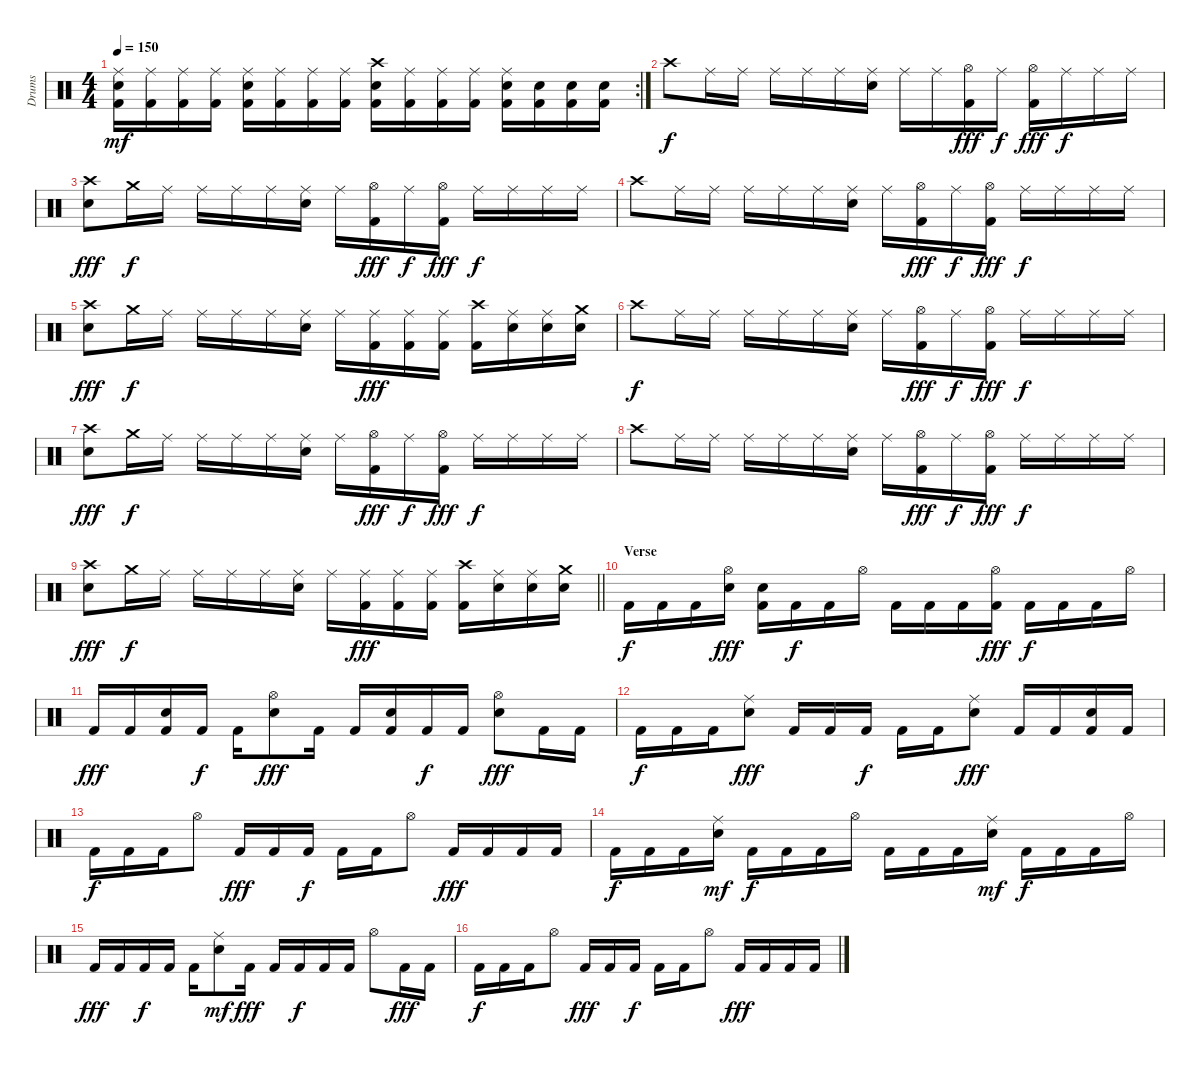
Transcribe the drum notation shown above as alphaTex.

\track ("Drums" "Drums") {instrument percussion}
\staff {score}
\articulation defaults
\rc 2
\ts (4 4)
\tempo 150
\clef neutral
\ks c
("Ride (middle)" "Electric Snare (hit)" "Kick (hit) 2").16{dy mf} ("Ride (middle)" "Kick (hit) 2").16 ("Ride (middle)" "Kick (hit) 2").16 ("Ride (middle)" "Kick (hit) 2").16 ("Ride (middle)" "Electric Snare (hit)" "Kick (hit) 2").16 ("Ride (middle)" "Kick (hit) 2").16 ("Ride (middle)" "Kick (hit) 2").16 ("Ride (middle)" "Kick (hit) 2").16 ("Crash high (hit)" "Electric Snare (hit)" "Kick (hit) 2").16 ("Ride (middle)" "Kick (hit) 2").16 ("Ride (middle)" "Kick (hit) 2").16 ("Ride (middle)" "Kick (hit) 2").16 ("Ride (middle)" "Electric Snare (hit)" "Kick (hit) 2").16 ("Electric Snare (hit)" "Kick (hit) 2").16 ("Electric Snare (hit)" "Kick (hit) 2").16 ("Electric Snare (hit)" "Kick (hit) 2").16 |
"Crash high (hit)".8{dy f} "Ride (middle)".16 "Ride (middle)".16 "Ride (middle)".16 "Ride (middle)".16 "Ride (middle)".16 ("Ride (middle)" "Snare (hit) 2").16 "Ride (middle)".16 "Ride (middle)".16 ("Hi-Hat (open)" "Kick (hit) 2").16{dy fff} "Ride (middle)".16{dy f} ("Hi-Hat (open)" "Kick (hit) 2").16{dy fff} "Ride (middle)".16{dy f} "Ride (middle)".16 "Ride (middle)".16 |
("Crash high (hit)" "Snare (hit) 2").8{dy fff} "Crash medium (hit)".16{dy f} "Ride (middle)".16 "Ride (middle)".16 "Ride (middle)".16 "Ride (middle)".16 ("Ride (middle)" "Snare (hit) 2").16 "Ride (middle)".16 ("Hi-Hat (open)" "Kick (hit) 2").16{dy fff} "Ride (middle)".16{dy f} ("Hi-Hat (open)" "Kick (hit) 2").16{dy fff} "Ride (middle)".16{dy f} "Ride (middle)".16 "Ride (middle)".16 "Ride (middle)".16 |
"Crash high (hit)".8 "Ride (middle)".16 "Ride (middle)".16 "Ride (middle)".16 "Ride (middle)".16 "Ride (middle)".16 ("Ride (middle)" "Snare (hit) 2").16 "Ride (middle)".16 ("Hi-Hat (open)" "Kick (hit) 2").16{dy fff} "Ride (middle)".16{dy f} ("Hi-Hat (open)" "Kick (hit) 2").16{dy fff} "Ride (middle)".16{dy f} "Ride (middle)".16 "Ride (middle)".16 "Ride (middle)".16 |
("Crash high (hit)" "Snare (hit) 2").8{dy fff} "Crash medium (hit)".16{dy f} "Ride (middle)".16 "Ride (middle)".16 "Ride (middle)".16 "Ride (middle)".16 ("Ride (middle)" "Snare (hit) 2").16 "Ride (middle)".16 ("Ride (middle)" "Kick (hit) 2").16{dy fff} ("Ride (middle)" "Kick (hit) 2").16 ("Ride (middle)" "Kick (hit) 2").16 ("Crash high (hit)" "Kick (hit) 2").16 ("Ride (middle)" "Electric Snare (hit)").16 ("Ride (middle)" "Electric Snare (hit)").16 ("Crash medium (hit)" "Snare (hit) 2").16 |
"Crash high (hit)".8{dy f} "Ride (middle)".16 "Ride (middle)".16 "Ride (middle)".16 "Ride (middle)".16 "Ride (middle)".16 ("Ride (middle)" "Snare (hit) 2").16 "Ride (middle)".16 ("Hi-Hat (open)" "Kick (hit) 2").16{dy fff} "Ride (middle)".16{dy f} ("Hi-Hat (open)" "Kick (hit) 2").16{dy fff} "Ride (middle)".16{dy f} "Ride (middle)".16 "Ride (middle)".16 "Ride (middle)".16 |
("Crash high (hit)" "Snare (hit) 2").8{dy fff} "Crash medium (hit)".16{dy f} "Ride (middle)".16 "Ride (middle)".16 "Ride (middle)".16 "Ride (middle)".16 ("Ride (middle)" "Snare (hit) 2").16 "Ride (middle)".16 ("Hi-Hat (open)" "Kick (hit) 2").16{dy fff} "Ride (middle)".16{dy f} ("Hi-Hat (open)" "Kick (hit) 2").16{dy fff} "Ride (middle)".16{dy f} "Ride (middle)".16 "Ride (middle)".16 "Ride (middle)".16 |
"Crash high (hit)".8 "Ride (middle)".16 "Ride (middle)".16 "Ride (middle)".16 "Ride (middle)".16 "Ride (middle)".16 ("Ride (middle)" "Snare (hit) 2").16 "Ride (middle)".16 ("Hi-Hat (open)" "Kick (hit) 2").16{dy fff} "Ride (middle)".16{dy f} ("Hi-Hat (open)" "Kick (hit) 2").16{dy fff} "Ride (middle)".16{dy f} "Ride (middle)".16 "Ride (middle)".16 "Ride (middle)".16 |
\barLineRight lightlight
("Crash high (hit)" "Snare (hit) 2").8{dy fff} "Crash medium (hit)".16{dy f} "Ride (middle)".16 "Ride (middle)".16 "Ride (middle)".16 "Ride (middle)".16 ("Ride (middle)" "Snare (hit) 2").16 "Ride (middle)".16 ("Ride (middle)" "Kick (hit) 2").16{dy fff} ("Ride (middle)" "Kick (hit) 2").16 ("Ride (middle)" "Kick (hit) 2").16 ("Crash high (hit)" "Kick (hit) 2").16 ("Ride (middle)" "Electric Snare (hit)").16 ("Ride (middle)" "Electric Snare (hit)").16 ("Crash medium (hit)" "Snare (hit) 2").16 |
\section ("" "Verse")
"Kick (hit) 2".16{dy f} "Kick (hit) 2".16 "Kick (hit) 2".16 ("Hi-Hat (open)" "Snare (hit) 2").16{dy fff} ("Snare (hit) 2" "Kick (hit) 2").16 "Kick (hit) 2".16{dy f} "Kick (hit) 2".16 "Hi-Hat (open)".16 "Kick (hit) 2".16 "Kick (hit) 2".16 "Kick (hit) 2".16 ("Hi-Hat (open)" "Kick (hit) 2").16{dy fff} "Kick (hit) 2".16{dy f} "Kick (hit) 2".16 "Kick (hit) 2".16 "Hi-Hat (open)".16 |
"Kick (hit) 2".16{dy fff} "Kick (hit) 2".16 ("Snare (hit) 2" "Kick (hit) 2").16 "Kick (hit) 2".16{dy f} "Kick (hit) 2".16 ("Hi-Hat (open)" "Snare (hit) 2").8{dy fff} "Kick (hit) 2".16 "Kick (hit) 2".16 ("Snare (hit) 2" "Kick (hit) 2").16 "Kick (hit) 2".16{dy f} "Kick (hit) 2".16 ("Hi-Hat (open)" "Snare (hit) 2").8{dy fff} "Kick (hit) 2".16 "Kick (hit) 2".16 |
"Kick (hit) 2".16{dy f} "Kick (hit) 2".16 "Kick (hit) 2".16 ("Ride (middle)" "Snare (hit) 2").8{dy fff} "Kick (hit) 2".16 "Kick (hit) 2".16 "Kick (hit) 2".16{dy f} "Kick (hit) 2".16 "Kick (hit) 2".16 ("Ride (middle)" "Snare (hit) 2").8{dy fff} "Kick (hit) 2".16 "Kick (hit) 2".16 ("Snare (hit) 2" "Kick (hit) 2").16 "Kick (hit) 2".16 |
"Kick (hit) 2".16{dy f} "Kick (hit) 2".16 "Kick (hit) 2".16 "Hi-Hat (open)".8 "Kick (hit) 2".16{dy fff} "Kick (hit) 2".16 "Kick (hit) 2".16{dy f} "Kick (hit) 2".16 "Kick (hit) 2".16 "Hi-Hat (open)".8 "Kick (hit) 2".16{dy fff} "Kick (hit) 2".16 "Kick (hit) 2".16 "Kick (hit) 2".16 |
"Kick (hit) 2".16{dy f} "Kick (hit) 2".16 "Kick (hit) 2".16 ("Ride (middle)" "Snare (hit) 2").16{dy mf} "Kick (hit) 2".16{dy f} "Kick (hit) 2".16 "Kick (hit) 2".16 "Hi-Hat (open)".16 "Kick (hit) 2".16 "Kick (hit) 2".16 "Kick (hit) 2".16 ("Ride (middle)" "Snare (hit) 2").16{dy mf} "Kick (hit) 2".16{dy f} "Kick (hit) 2".16 "Kick (hit) 2".16 "Hi-Hat (open)".16 |
"Kick (hit) 2".16{dy fff} "Kick (hit) 2".16 "Kick (hit) 2".16{dy f} "Kick (hit) 2".16 "Kick (hit) 2".16 ("Ride (middle)" "Snare (hit) 2").8{dy mf} "Kick (hit) 2".16{dy fff} "Kick (hit) 2".16 "Kick (hit) 2".16{dy f} "Kick (hit) 2".16 "Kick (hit) 2".16 "Hi-Hat (open)".8 "Kick (hit) 2".16{dy fff} "Kick (hit) 2".16 |
"Kick (hit) 2".16{dy f} "Kick (hit) 2".16 "Kick (hit) 2".16 "Hi-Hat (open)".8 "Kick (hit) 2".16{dy fff} "Kick (hit) 2".16 "Kick (hit) 2".16{dy f} "Kick (hit) 2".16 "Kick (hit) 2".16 "Hi-Hat (open)".8 "Kick (hit) 2".16{dy fff} "Kick (hit) 2".16 "Kick (hit) 2".16 "Kick (hit) 2".16
